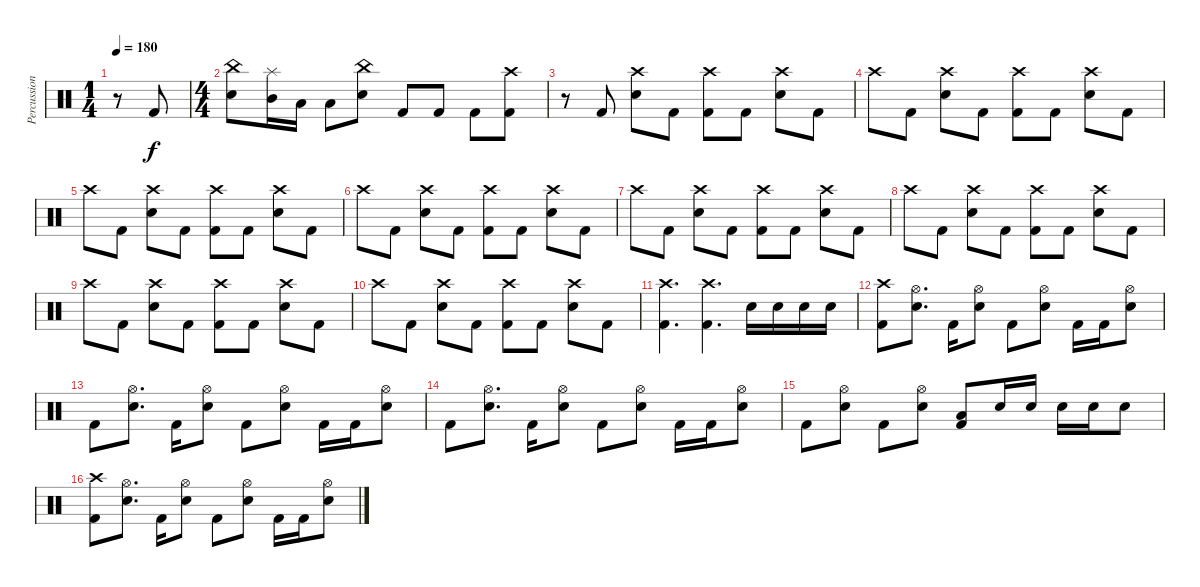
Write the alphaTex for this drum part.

\track ("Percussion" "Percussion") {instrument percussion}
\staff {score}
\articulation defaults
\ts (1 4)
\tempo 180
\clef neutral
\ks c
r.8{dy f} "Kick (hit) 2".8 |
\ts (4 4)
("China (hit)" "Electric Snare (hit)").8 ("Splash (hit)" "Mid Tom (hit)").16 "Low Tom (hit)".16 "Low Tom (hit)".8 ("China (hit)" "Electric Snare (hit)").8 "Kick (hit) 2".8 "Kick (hit) 2".8 "Kick (hit) 2".8 ("Crash high (hit)" "Kick (hit) 2").8 |
r.8 "Kick (hit) 2".8 ("Crash high (hit)" "Electric Snare (hit)").8 "Kick (hit) 2".8 ("Crash high (hit)" "Kick (hit) 2").8 "Kick (hit) 2".8 ("Crash high (hit)" "Electric Snare (hit)").8 "Kick (hit) 2".8 |
"Crash high (hit)".8 "Kick (hit) 2".8 ("Crash high (hit)" "Electric Snare (hit)").8 "Kick (hit) 2".8 ("Crash high (hit)" "Kick (hit) 2").8 "Kick (hit) 2".8 ("Crash high (hit)" "Electric Snare (hit)").8 "Kick (hit) 2".8 |
"Crash high (hit)".8 "Kick (hit) 2".8 ("Crash high (hit)" "Electric Snare (hit)").8 "Kick (hit) 2".8 ("Crash high (hit)" "Kick (hit) 2").8 "Kick (hit) 2".8 ("Crash high (hit)" "Electric Snare (hit)").8 "Kick (hit) 2".8 |
"Crash high (hit)".8 "Kick (hit) 2".8 ("Crash high (hit)" "Electric Snare (hit)").8 "Kick (hit) 2".8 ("Crash high (hit)" "Kick (hit) 2").8 "Kick (hit) 2".8 ("Crash high (hit)" "Electric Snare (hit)").8 "Kick (hit) 2".8 |
"Crash high (hit)".8 "Kick (hit) 2".8 ("Crash high (hit)" "Electric Snare (hit)").8 "Kick (hit) 2".8 ("Crash high (hit)" "Kick (hit) 2").8 "Kick (hit) 2".8 ("Crash high (hit)" "Electric Snare (hit)").8 "Kick (hit) 2".8 |
"Crash high (hit)".8 "Kick (hit) 2".8 ("Crash high (hit)" "Electric Snare (hit)").8 "Kick (hit) 2".8 ("Crash high (hit)" "Kick (hit) 2").8 "Kick (hit) 2".8 ("Crash high (hit)" "Electric Snare (hit)").8 "Kick (hit) 2".8 |
"Crash high (hit)".8 "Kick (hit) 2".8 ("Crash high (hit)" "Electric Snare (hit)").8 "Kick (hit) 2".8 ("Crash high (hit)" "Kick (hit) 2").8 "Kick (hit) 2".8 ("Crash high (hit)" "Electric Snare (hit)").8 "Kick (hit) 2".8 |
"Crash high (hit)".8 "Kick (hit) 2".8 ("Crash high (hit)" "Electric Snare (hit)").8 "Kick (hit) 2".8 ("Crash high (hit)" "Kick (hit) 2").8 "Kick (hit) 2".8 ("Crash high (hit)" "Electric Snare (hit)").8 "Kick (hit) 2".8 |
("Crash high (hit)" "Kick (hit) 2").4{d} ("Crash high (hit)" "Kick (hit) 2").4{d} "Electric Snare (hit)".16 "Electric Snare (hit)".16 "Electric Snare (hit)".16 "Electric Snare (hit)".16 |
("Crash high (hit)" "Kick (hit) 2").8 ("Hi-Hat (open)" "Electric Snare (hit)").8{d} "Kick (hit) 2".16 ("Hi-Hat (open)" "Electric Snare (hit)").8 "Kick (hit) 2".8 ("Hi-Hat (open)" "Electric Snare (hit)").8 "Kick (hit) 2".16 "Kick (hit) 2".16 ("Hi-Hat (open)" "Electric Snare (hit)").8 |
"Kick (hit) 2".8 ("Hi-Hat (open)" "Electric Snare (hit)").8{d} "Kick (hit) 2".16 ("Hi-Hat (open)" "Electric Snare (hit)").8 "Kick (hit) 2".8 ("Hi-Hat (open)" "Electric Snare (hit)").8 "Kick (hit) 2".16 "Kick (hit) 2".16 ("Hi-Hat (open)" "Electric Snare (hit)").8 |
"Kick (hit) 2".8 ("Hi-Hat (open)" "Electric Snare (hit)").8{d} "Kick (hit) 2".16 ("Hi-Hat (open)" "Electric Snare (hit)").8 "Kick (hit) 2".8 ("Hi-Hat (open)" "Electric Snare (hit)").8 "Kick (hit) 2".16 "Kick (hit) 2".16 ("Hi-Hat (open)" "Electric Snare (hit)").8 |
"Kick (hit) 2".8 ("Hi-Hat (open)" "Electric Snare (hit)").8 "Kick (hit) 2".8 ("Hi-Hat (open)" "Electric Snare (hit)").8 ("Low Tom (hit)" "Kick (hit) 2").8 "Electric Snare (hit)".16 "Electric Snare (hit)".16 "Electric Snare (hit)".16 "Electric Snare (hit)".16 "Electric Snare (hit)".8 |
("Crash high (hit)" "Kick (hit) 2").8 ("Hi-Hat (open)" "Electric Snare (hit)").8{d} "Kick (hit) 2".16 ("Hi-Hat (open)" "Electric Snare (hit)").8 "Kick (hit) 2".8 ("Hi-Hat (open)" "Electric Snare (hit)").8 "Kick (hit) 2".16 "Kick (hit) 2".16 ("Hi-Hat (open)" "Electric Snare (hit)").8
